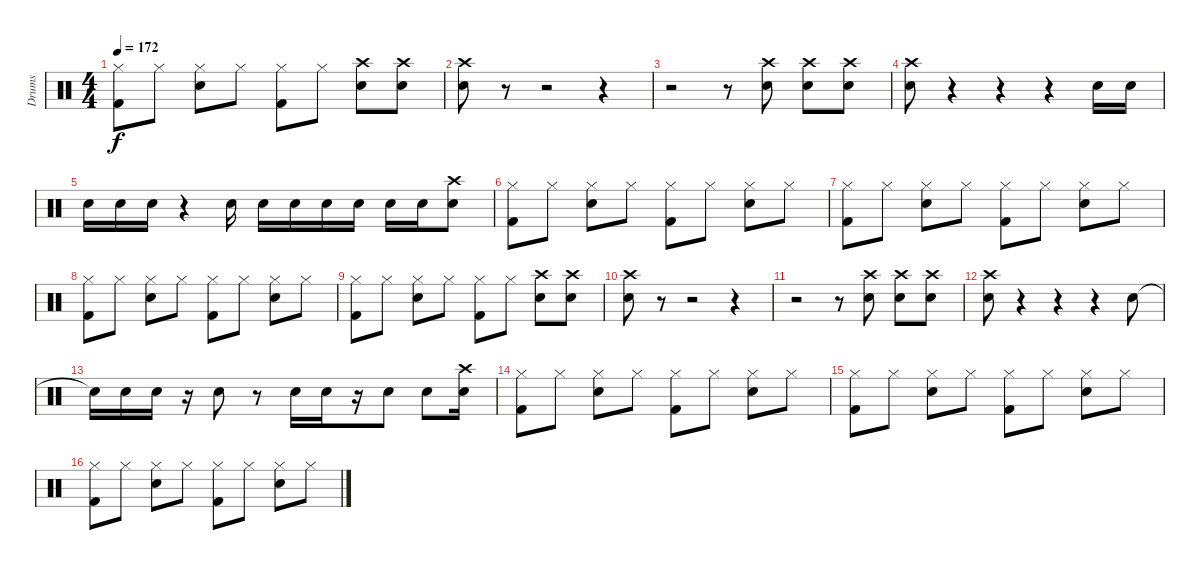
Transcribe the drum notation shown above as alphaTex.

\track ("Drums" "Drums") {instrument percussion}
\staff {score}
\articulation defaults
\ts (4 4)
\tempo 172
\clef neutral
\ks c
("Hi-Hat (closed)" "Kick (hit) 2").8{dy f} "Hi-Hat (closed)".8 ("Hi-Hat (closed)" "Snare (hit) 2").8 "Hi-Hat (closed)".8 ("Hi-Hat (closed)" "Kick (hit) 2").8 "Hi-Hat (closed)".8 ("Crash high (hit)" "Snare (hit) 2").8 ("Crash high (hit)" "Snare (hit) 2").8 |
("Crash high (hit)" "Snare (hit) 2").8 r.8 r.2 r.4 |
r.2 r.8 ("Crash high (hit)" "Snare (hit) 2").8 ("Crash high (hit)" "Snare (hit) 2").8 ("Crash high (hit)" "Snare (hit) 2").8 |
("Crash high (hit)" "Snare (hit) 2").8 r.4 r.4 r.4 "Snare (hit) 2".16 "Snare (hit) 2".16 |
"Snare (hit) 2".16 "Snare (hit) 2".16 "Snare (hit) 2".16 r.4 "Snare (hit) 2".16 "Snare (hit) 2".16 "Snare (hit) 2".16 "Snare (hit) 2".16 "Snare (hit) 2".16 "Snare (hit) 2".16 "Snare (hit) 2".16 ("Crash high (hit)" "Snare (hit) 2").8 |
("Hi-Hat (closed)" "Kick (hit) 2").8 "Hi-Hat (closed)".8 ("Hi-Hat (closed)" "Snare (hit) 2").8 "Hi-Hat (closed)".8 ("Hi-Hat (closed)" "Kick (hit) 2").8 "Hi-Hat (closed)".8 ("Hi-Hat (closed)" "Snare (hit) 2").8 "Hi-Hat (closed)".8 |
("Hi-Hat (closed)" "Kick (hit) 2").8 "Hi-Hat (closed)".8 ("Hi-Hat (closed)" "Snare (hit) 2").8 "Hi-Hat (closed)".8 ("Hi-Hat (closed)" "Kick (hit) 2").8 "Hi-Hat (closed)".8 ("Hi-Hat (closed)" "Snare (hit) 2").8 "Hi-Hat (closed)".8 |
("Hi-Hat (closed)" "Kick (hit) 2").8 "Hi-Hat (closed)".8 ("Hi-Hat (closed)" "Snare (hit) 2").8 "Hi-Hat (closed)".8 ("Hi-Hat (closed)" "Kick (hit) 2").8 "Hi-Hat (closed)".8 ("Hi-Hat (closed)" "Snare (hit) 2").8 "Hi-Hat (closed)".8 |
("Hi-Hat (closed)" "Kick (hit) 2").8 "Hi-Hat (closed)".8 ("Hi-Hat (closed)" "Snare (hit) 2").8 "Hi-Hat (closed)".8 ("Hi-Hat (closed)" "Kick (hit) 2").8 "Hi-Hat (closed)".8 ("Crash high (hit)" "Snare (hit) 2").8 ("Crash high (hit)" "Snare (hit) 2").8 |
("Crash high (hit)" "Snare (hit) 2").8 r.8 r.2 r.4 |
r.2 r.8 ("Crash high (hit)" "Snare (hit) 2").8 ("Crash high (hit)" "Snare (hit) 2").8 ("Crash high (hit)" "Snare (hit) 2").8 |
("Crash high (hit)" "Snare (hit) 2").8 r.4 r.4 r.4 "Snare (hit) 2".8 |
"Snare (hit) 2"{t}.16 "Snare (hit) 2".16 "Snare (hit) 2".16 r.16 "Snare (hit) 2".8 r.8 "Snare (hit) 2".16 "Snare (hit) 2".16 r.16 "Snare (hit) 2".8 "Snare (hit) 2".8 ("Crash high (hit)" "Snare (hit) 2").16 |
("Hi-Hat (closed)" "Kick (hit) 2").8 "Hi-Hat (closed)".8 ("Hi-Hat (closed)" "Snare (hit) 2").8 "Hi-Hat (closed)".8 ("Hi-Hat (closed)" "Kick (hit) 2").8 "Hi-Hat (closed)".8 ("Hi-Hat (closed)" "Snare (hit) 2").8 "Hi-Hat (closed)".8 |
("Hi-Hat (closed)" "Kick (hit) 2").8 "Hi-Hat (closed)".8 ("Hi-Hat (closed)" "Snare (hit) 2").8 "Hi-Hat (closed)".8 ("Hi-Hat (closed)" "Kick (hit) 2").8 "Hi-Hat (closed)".8 ("Hi-Hat (closed)" "Snare (hit) 2").8 "Hi-Hat (closed)".8 |
("Hi-Hat (closed)" "Kick (hit) 2").8 "Hi-Hat (closed)".8 ("Hi-Hat (closed)" "Snare (hit) 2").8 "Hi-Hat (closed)".8 ("Hi-Hat (closed)" "Kick (hit) 2").8 "Hi-Hat (closed)".8 ("Hi-Hat (closed)" "Snare (hit) 2").8 "Hi-Hat (closed)".8
